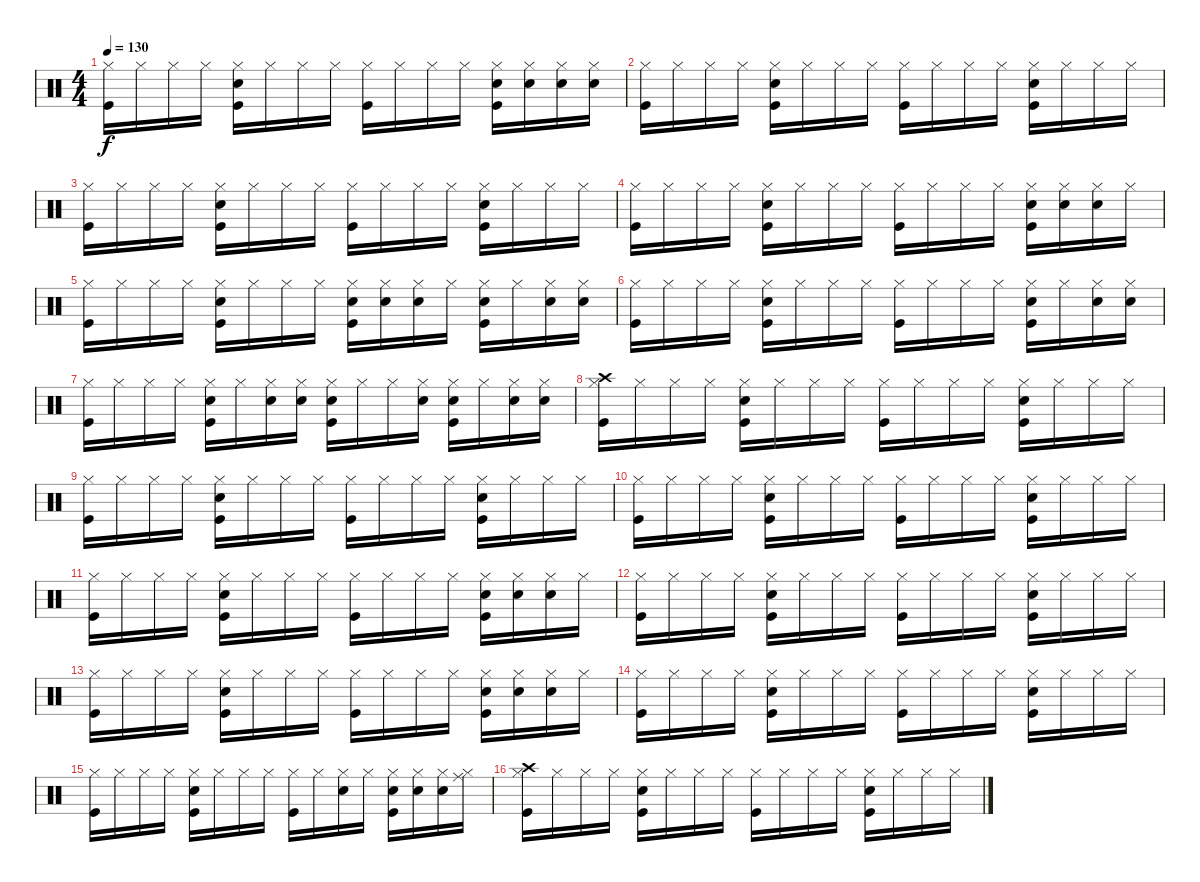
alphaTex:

\track "" {instrument percussion}
\staff {score}
\articulation defaults
\ts (4 4)
\tempo 130
\clef neutral
\ks c
("Hi-Hat (closed)" "Kick (hit)").16{dy f} "Hi-Hat (closed)".16 "Hi-Hat (closed)".16 "Hi-Hat (closed)".16 ("Snare (hit) 2" "Hi-Hat (closed)" "Kick (hit)").16 "Hi-Hat (closed)".16 "Hi-Hat (closed)".16 "Hi-Hat (closed)".16 ("Hi-Hat (closed)" "Kick (hit)").16 "Hi-Hat (closed)".16 "Hi-Hat (closed)".16 "Hi-Hat (closed)".16 ("Snare (hit) 2" "Hi-Hat (closed)" "Kick (hit)").16 ("Snare (hit) 2" "Hi-Hat (closed)").16 ("Snare (hit) 2" "Hi-Hat (closed)").16 ("Snare (hit) 2" "Hi-Hat (closed)").16 |
("Hi-Hat (closed)" "Kick (hit)").16 "Hi-Hat (closed)".16 "Hi-Hat (closed)".16 "Hi-Hat (closed)".16 ("Snare (hit) 2" "Hi-Hat (closed)" "Kick (hit)").16 "Hi-Hat (closed)".16 "Hi-Hat (closed)".16 "Hi-Hat (closed)".16 ("Hi-Hat (closed)" "Kick (hit)").16 "Hi-Hat (closed)".16 "Hi-Hat (closed)".16 "Hi-Hat (closed)".16 ("Snare (hit) 2" "Hi-Hat (closed)" "Kick (hit)").16 "Hi-Hat (closed)".16 "Hi-Hat (closed)".16 "Hi-Hat (closed)".16 |
("Hi-Hat (closed)" "Kick (hit)").16 "Hi-Hat (closed)".16 "Hi-Hat (closed)".16 "Hi-Hat (closed)".16 ("Snare (hit) 2" "Hi-Hat (closed)" "Kick (hit)").16 "Hi-Hat (closed)".16 "Hi-Hat (closed)".16 "Hi-Hat (closed)".16 ("Hi-Hat (closed)" "Kick (hit)").16 "Hi-Hat (closed)".16 "Hi-Hat (closed)".16 "Hi-Hat (closed)".16 ("Snare (hit) 2" "Hi-Hat (closed)" "Kick (hit)").16 "Hi-Hat (closed)".16 "Hi-Hat (closed)".16 "Hi-Hat (closed)".16 |
("Hi-Hat (closed)" "Kick (hit)").16 "Hi-Hat (closed)".16 "Hi-Hat (closed)".16 "Hi-Hat (closed)".16 ("Snare (hit) 2" "Hi-Hat (closed)" "Kick (hit)").16 "Hi-Hat (closed)".16 "Hi-Hat (closed)".16 "Hi-Hat (closed)".16 ("Hi-Hat (closed)" "Kick (hit)").16 "Hi-Hat (closed)".16 "Hi-Hat (closed)".16 "Hi-Hat (closed)".16 ("Snare (hit) 2" "Hi-Hat (closed)" "Kick (hit)").16 ("Snare (hit) 2" "Hi-Hat (closed)").16 ("Snare (hit) 2" "Hi-Hat (closed)").16 "Hi-Hat (closed)".16 |
("Hi-Hat (closed)" "Kick (hit)").16 "Hi-Hat (closed)".16 "Hi-Hat (closed)".16 "Hi-Hat (closed)".16 ("Snare (hit) 2" "Hi-Hat (closed)" "Kick (hit)").16 "Hi-Hat (closed)".16 "Hi-Hat (closed)".16 "Hi-Hat (closed)".16 ("Snare (hit) 2" "Hi-Hat (closed)" "Kick (hit)").16 ("Snare (hit) 2" "Hi-Hat (closed)").16 ("Snare (hit) 2" "Hi-Hat (closed)").16 "Hi-Hat (closed)".16 ("Snare (hit) 2" "Hi-Hat (closed)" "Kick (hit)").16 "Hi-Hat (closed)".16 ("Snare (hit) 2" "Hi-Hat (closed)").16 ("Snare (hit) 2" "Hi-Hat (closed)").16 |
("Hi-Hat (closed)" "Kick (hit)").16 "Hi-Hat (closed)".16 "Hi-Hat (closed)".16 "Hi-Hat (closed)".16 ("Snare (hit) 2" "Hi-Hat (closed)" "Kick (hit)").16 "Hi-Hat (closed)".16 "Hi-Hat (closed)".16 "Hi-Hat (closed)".16 ("Hi-Hat (closed)" "Kick (hit)").16 "Hi-Hat (closed)".16 "Hi-Hat (closed)".16 "Hi-Hat (closed)".16 ("Snare (hit) 2" "Hi-Hat (closed)" "Kick (hit)").16 "Hi-Hat (closed)".16 ("Snare (hit) 2" "Hi-Hat (closed)").16 ("Snare (hit) 2" "Hi-Hat (closed)").16 |
("Hi-Hat (closed)" "Kick (hit)").16 "Hi-Hat (closed)".16 "Hi-Hat (closed)".16 "Hi-Hat (closed)".16 ("Snare (hit) 2" "Hi-Hat (closed)" "Kick (hit)").16 "Hi-Hat (closed)".16 ("Snare (hit) 2" "Hi-Hat (closed)").16 ("Snare (hit) 2" "Hi-Hat (closed)").16 ("Snare (hit) 2" "Hi-Hat (closed)" "Kick (hit)").16 "Hi-Hat (closed)".16 "Hi-Hat (closed)".16 ("Snare (hit) 2" "Hi-Hat (closed)").16 ("Snare (hit) 2" "Hi-Hat (closed)" "Kick (hit)").16 "Hi-Hat (closed)".16 ("Snare (hit) 2" "Hi-Hat (closed)").16 ("Snare (hit) 2" "Hi-Hat (closed)").16 |
("Crash high (hit)" "Hi-Hat (closed)" "Kick (hit)").16 "Hi-Hat (closed)".16 "Hi-Hat (closed)".16 "Hi-Hat (closed)".16 ("Snare (hit) 2" "Hi-Hat (closed)" "Kick (hit)").16 "Hi-Hat (closed)".16 "Hi-Hat (closed)".16 "Hi-Hat (closed)".16 ("Hi-Hat (closed)" "Kick (hit)").16 "Hi-Hat (closed)".16 "Hi-Hat (closed)".16 "Hi-Hat (closed)".16 ("Snare (hit) 2" "Hi-Hat (closed)" "Kick (hit)").16 "Hi-Hat (closed)".16 "Hi-Hat (closed)".16 "Hi-Hat (closed)".16 |
("Hi-Hat (closed)" "Kick (hit)").16 "Hi-Hat (closed)".16 "Hi-Hat (closed)".16 "Hi-Hat (closed)".16 ("Snare (hit) 2" "Hi-Hat (closed)" "Kick (hit)").16 "Hi-Hat (closed)".16 "Hi-Hat (closed)".16 "Hi-Hat (closed)".16 ("Hi-Hat (closed)" "Kick (hit)").16 "Hi-Hat (closed)".16 "Hi-Hat (closed)".16 "Hi-Hat (closed)".16 ("Snare (hit) 2" "Hi-Hat (closed)" "Kick (hit)").16 "Hi-Hat (closed)".16 "Hi-Hat (closed)".16 "Hi-Hat (closed)".16 |
("Hi-Hat (closed)" "Kick (hit)").16 "Hi-Hat (closed)".16 "Hi-Hat (closed)".16 "Hi-Hat (closed)".16 ("Snare (hit) 2" "Hi-Hat (closed)" "Kick (hit)").16 "Hi-Hat (closed)".16 "Hi-Hat (closed)".16 "Hi-Hat (closed)".16 ("Hi-Hat (closed)" "Kick (hit)").16 "Hi-Hat (closed)".16 "Hi-Hat (closed)".16 "Hi-Hat (closed)".16 ("Snare (hit) 2" "Hi-Hat (closed)" "Kick (hit)").16 "Hi-Hat (closed)".16 "Hi-Hat (closed)".16 "Hi-Hat (closed)".16 |
("Hi-Hat (closed)" "Kick (hit)").16 "Hi-Hat (closed)".16 "Hi-Hat (closed)".16 "Hi-Hat (closed)".16 ("Snare (hit) 2" "Hi-Hat (closed)" "Kick (hit)").16 "Hi-Hat (closed)".16 "Hi-Hat (closed)".16 "Hi-Hat (closed)".16 ("Hi-Hat (closed)" "Kick (hit)").16 "Hi-Hat (closed)".16 "Hi-Hat (closed)".16 "Hi-Hat (closed)".16 ("Snare (hit) 2" "Hi-Hat (closed)" "Kick (hit)").16 ("Snare (hit) 2" "Hi-Hat (closed)").16 ("Snare (hit) 2" "Hi-Hat (closed)").16 "Hi-Hat (closed)".16 |
("Hi-Hat (closed)" "Kick (hit)").16 "Hi-Hat (closed)".16 "Hi-Hat (closed)".16 "Hi-Hat (closed)".16 ("Snare (hit) 2" "Hi-Hat (closed)" "Kick (hit)").16 "Hi-Hat (closed)".16 "Hi-Hat (closed)".16 "Hi-Hat (closed)".16 ("Hi-Hat (closed)" "Kick (hit)").16 "Hi-Hat (closed)".16 "Hi-Hat (closed)".16 "Hi-Hat (closed)".16 ("Snare (hit) 2" "Hi-Hat (closed)" "Kick (hit)").16 "Hi-Hat (closed)".16 "Hi-Hat (closed)".16 "Hi-Hat (closed)".16 |
("Hi-Hat (closed)" "Kick (hit)").16 "Hi-Hat (closed)".16 "Hi-Hat (closed)".16 "Hi-Hat (closed)".16 ("Snare (hit) 2" "Hi-Hat (closed)" "Kick (hit)").16 "Hi-Hat (closed)".16 "Hi-Hat (closed)".16 "Hi-Hat (closed)".16 ("Hi-Hat (closed)" "Kick (hit)").16 "Hi-Hat (closed)".16 "Hi-Hat (closed)".16 "Hi-Hat (closed)".16 ("Snare (hit) 2" "Hi-Hat (closed)" "Kick (hit)").16 ("Snare (hit) 2" "Hi-Hat (closed)").16 ("Snare (hit) 2" "Hi-Hat (closed)").16 "Hi-Hat (closed)".16 |
("Hi-Hat (closed)" "Kick (hit)").16 "Hi-Hat (closed)".16 "Hi-Hat (closed)".16 "Hi-Hat (closed)".16 ("Snare (hit) 2" "Hi-Hat (closed)" "Kick (hit)").16 "Hi-Hat (closed)".16 "Hi-Hat (closed)".16 "Hi-Hat (closed)".16 ("Hi-Hat (closed)" "Kick (hit)").16 "Hi-Hat (closed)".16 "Hi-Hat (closed)".16 "Hi-Hat (closed)".16 ("Snare (hit) 2" "Hi-Hat (closed)" "Kick (hit)").16 "Hi-Hat (closed)".16 "Hi-Hat (closed)".16 "Hi-Hat (closed)".16 |
("Hi-Hat (closed)" "Kick (hit)").16 "Hi-Hat (closed)".16 "Hi-Hat (closed)".16 "Hi-Hat (closed)".16 ("Snare (hit) 2" "Hi-Hat (closed)" "Kick (hit)").16 "Hi-Hat (closed)".16 "Hi-Hat (closed)".16 "Hi-Hat (closed)".16 ("Hi-Hat (closed)" "Kick (hit)").16 "Hi-Hat (closed)".16 ("Snare (hit) 2" "Hi-Hat (closed)").16 "Hi-Hat (closed)".16 ("Snare (hit) 2" "Hi-Hat (closed)" "Kick (hit)").16 ("Snare (hit) 2" "Hi-Hat (closed)").16 ("Snare (hit) 2" "Hi-Hat (closed)").16 ("Ride (middle)" "Hi-Hat (closed)").16 |
("Crash high (hit)" "Hi-Hat (closed)" "Kick (hit)").16 "Hi-Hat (closed)".16 "Hi-Hat (closed)".16 "Hi-Hat (closed)".16 ("Snare (hit) 2" "Hi-Hat (closed)" "Kick (hit)").16 "Hi-Hat (closed)".16 "Hi-Hat (closed)".16 "Hi-Hat (closed)".16 ("Hi-Hat (closed)" "Kick (hit)").16 "Hi-Hat (closed)".16 "Hi-Hat (closed)".16 "Hi-Hat (closed)".16 ("Snare (hit) 2" "Hi-Hat (closed)" "Kick (hit)").16 "Hi-Hat (closed)".16 "Hi-Hat (closed)".16 "Hi-Hat (closed)".16
